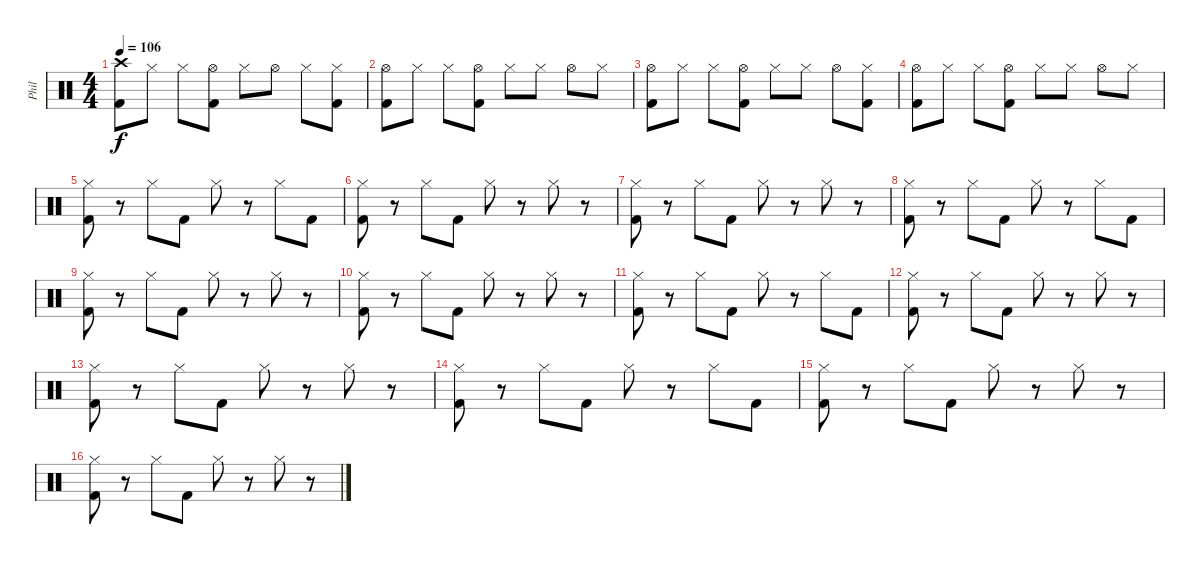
\track ("Phil" "Phil") {instrument percussion}
\staff {score}
\articulation defaults
\ts (4 4)
\tempo 106
\clef neutral
\ks c
("Crash high (hit)" "Kick (hit) 2").8{dy f} "Hi-Hat (closed)".8 "Hi-Hat (closed)".8 ("Hi-Hat (open)" "Kick (hit) 2").8 "Hi-Hat (closed)".8 "Hi-Hat (open)".8 "Hi-Hat (closed)".8 ("Hi-Hat (closed)" "Kick (hit) 2").8 |
("Hi-Hat (open)" "Kick (hit) 2").8 "Hi-Hat (closed)".8 "Hi-Hat (closed)".8 ("Hi-Hat (open)" "Kick (hit) 2").8 "Hi-Hat (closed)".8 "Hi-Hat (closed)".8 "Hi-Hat (open)".8 "Hi-Hat (closed)".8 |
("Hi-Hat (open)" "Kick (hit) 2").8 "Hi-Hat (closed)".8 "Hi-Hat (closed)".8 ("Hi-Hat (open)" "Kick (hit) 2").8 "Hi-Hat (closed)".8 "Hi-Hat (closed)".8 "Hi-Hat (open)".8 ("Hi-Hat (closed)" "Kick (hit) 2").8 |
("Hi-Hat (open)" "Kick (hit) 2").8 "Hi-Hat (closed)".8 "Hi-Hat (closed)".8 ("Hi-Hat (open)" "Kick (hit) 2").8 "Hi-Hat (closed)".8 "Hi-Hat (closed)".8 "Hi-Hat (open)".8 "Hi-Hat (closed)".8 |
("Hi-Hat (closed)" "Kick (hit) 2").8 r.8 "Hi-Hat (closed)".8 "Kick (hit) 2".8 "Hi-Hat (closed)".8 r.8 "Hi-Hat (closed)".8 "Kick (hit) 2".8 |
("Hi-Hat (closed)" "Kick (hit) 2").8 r.8 "Hi-Hat (closed)".8 "Kick (hit) 2".8 "Hi-Hat (closed)".8 r.8 "Hi-Hat (closed)".8 r.8 |
("Hi-Hat (closed)" "Kick (hit) 2").8 r.8 "Hi-Hat (closed)".8 "Kick (hit) 2".8 "Hi-Hat (closed)".8 r.8 "Hi-Hat (closed)".8 r.8 |
("Hi-Hat (closed)" "Kick (hit) 2").8 r.8 "Hi-Hat (closed)".8 "Kick (hit) 2".8 "Hi-Hat (closed)".8 r.8 "Hi-Hat (closed)".8 "Kick (hit) 2".8 |
("Hi-Hat (closed)" "Kick (hit) 2").8 r.8 "Hi-Hat (closed)".8 "Kick (hit) 2".8 "Hi-Hat (closed)".8 r.8 "Hi-Hat (closed)".8 r.8 |
("Hi-Hat (closed)" "Kick (hit) 2").8 r.8 "Hi-Hat (closed)".8 "Kick (hit) 2".8 "Hi-Hat (closed)".8 r.8 "Hi-Hat (closed)".8 r.8 |
("Hi-Hat (closed)" "Kick (hit) 2").8 r.8 "Hi-Hat (closed)".8 "Kick (hit) 2".8 "Hi-Hat (closed)".8 r.8 "Hi-Hat (closed)".8 "Kick (hit) 2".8 |
("Hi-Hat (closed)" "Kick (hit) 2").8 r.8 "Hi-Hat (closed)".8 "Kick (hit) 2".8 "Hi-Hat (closed)".8 r.8 "Hi-Hat (closed)".8 r.8 |
("Hi-Hat (closed)" "Kick (hit) 2").8 r.8 "Hi-Hat (closed)".8 "Kick (hit) 2".8 "Hi-Hat (closed)".8 r.8 "Hi-Hat (closed)".8 r.8 |
("Hi-Hat (closed)" "Kick (hit) 2").8 r.8 "Hi-Hat (closed)".8 "Kick (hit) 2".8 "Hi-Hat (closed)".8 r.8 "Hi-Hat (closed)".8 "Kick (hit) 2".8 |
("Hi-Hat (closed)" "Kick (hit) 2").8 r.8 "Hi-Hat (closed)".8 "Kick (hit) 2".8 "Hi-Hat (closed)".8 r.8 "Hi-Hat (closed)".8 r.8 |
("Hi-Hat (closed)" "Kick (hit) 2").8 r.8 "Hi-Hat (closed)".8 "Kick (hit) 2".8 "Hi-Hat (closed)".8 r.8 "Hi-Hat (closed)".8 r.8
